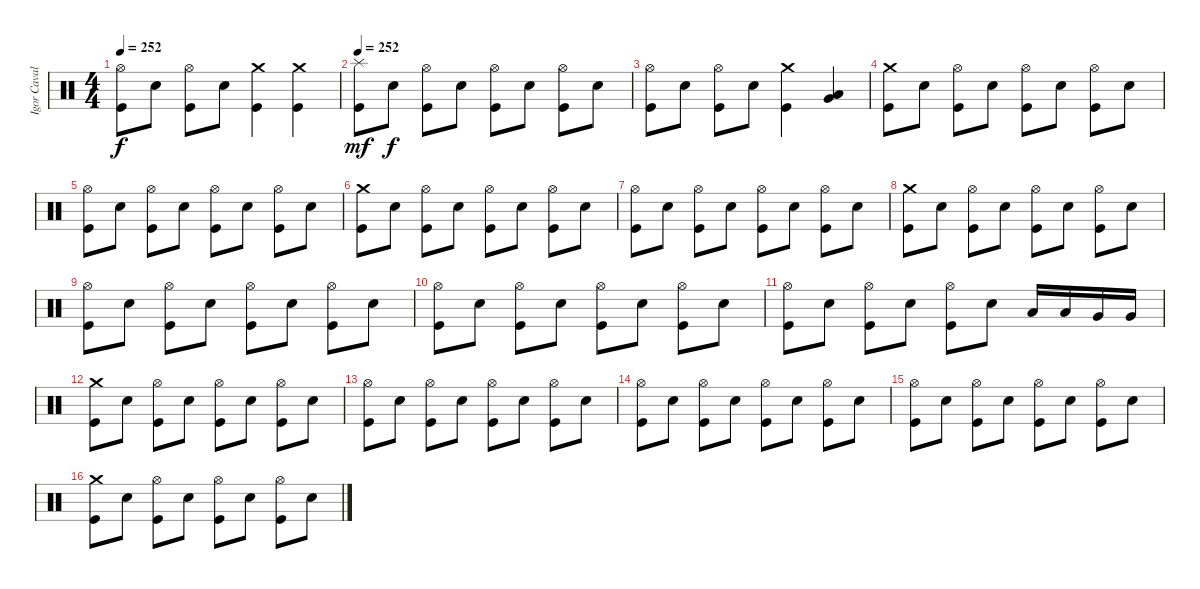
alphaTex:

\track ("Igor Cavalera" "Igor Caval") {instrument percussion}
\staff {score}
\articulation defaults
\ts (4 4)
\tempo 252
\clef neutral
\ks c
("Hi-Hat (open)" "Kick (hit)").8{dy f} "Electric Snare (hit)".8 ("Hi-Hat (open)" "Kick (hit)").8 "Electric Snare (hit)".8 ("Crash medium (hit)" "Kick (hit)").4 ("Crash medium (hit)" "Kick (hit)").4 |
\tempo 252
("Splash (hit)" "Kick (hit)").8{dy mf} "Electric Snare (hit)".8{dy f} ("Hi-Hat (open)" "Kick (hit)").8 "Electric Snare (hit)".8 ("Hi-Hat (open)" "Kick (hit)").8 "Electric Snare (hit)".8 ("Hi-Hat (open)" "Kick (hit)").8 "Electric Snare (hit)".8 |
("Hi-Hat (open)" "Kick (hit)").8 "Electric Snare (hit)".8 ("Hi-Hat (open)" "Kick (hit)").8 "Electric Snare (hit)".8 ("Crash medium (hit)" "Kick (hit)").4 ("Very Low Tom (hit)" "Low Floor Tom (hit)").4 |
("Crash medium (hit)" "Kick (hit)").8 "Electric Snare (hit)".8 ("Hi-Hat (open)" "Kick (hit)").8 "Electric Snare (hit)".8 ("Hi-Hat (open)" "Kick (hit)").8 "Electric Snare (hit)".8 ("Hi-Hat (open)" "Kick (hit)").8 "Electric Snare (hit)".8 |
("Hi-Hat (open)" "Kick (hit)").8 "Electric Snare (hit)".8 ("Hi-Hat (open)" "Kick (hit)").8 "Electric Snare (hit)".8 ("Hi-Hat (open)" "Kick (hit)").8 "Electric Snare (hit)".8 ("Hi-Hat (open)" "Kick (hit)").8 "Electric Snare (hit)".8 |
("Crash medium (hit)" "Kick (hit)").8 "Electric Snare (hit)".8 ("Hi-Hat (open)" "Kick (hit)").8 "Electric Snare (hit)".8 ("Hi-Hat (open)" "Kick (hit)").8 "Electric Snare (hit)".8 ("Hi-Hat (open)" "Kick (hit)").8 "Electric Snare (hit)".8 |
("Hi-Hat (open)" "Kick (hit)").8 "Electric Snare (hit)".8 ("Hi-Hat (open)" "Kick (hit)").8 "Electric Snare (hit)".8 ("Hi-Hat (open)" "Kick (hit)").8 "Electric Snare (hit)".8 ("Hi-Hat (open)" "Kick (hit)").8 "Electric Snare (hit)".8 |
("Crash medium (hit)" "Kick (hit)").8 "Electric Snare (hit)".8 ("Hi-Hat (open)" "Kick (hit)").8 "Electric Snare (hit)".8 ("Hi-Hat (open)" "Kick (hit)").8 "Electric Snare (hit)".8 ("Hi-Hat (open)" "Kick (hit)").8 "Electric Snare (hit)".8 |
("Hi-Hat (open)" "Kick (hit)").8 "Electric Snare (hit)".8 ("Hi-Hat (open)" "Kick (hit)").8 "Electric Snare (hit)".8 ("Hi-Hat (open)" "Kick (hit)").8 "Electric Snare (hit)".8 ("Hi-Hat (open)" "Kick (hit)").8 "Electric Snare (hit)".8 |
("Hi-Hat (open)" "Kick (hit)").8 "Electric Snare (hit)".8 ("Hi-Hat (open)" "Kick (hit)").8 "Electric Snare (hit)".8 ("Hi-Hat (open)" "Kick (hit)").8 "Electric Snare (hit)".8 ("Hi-Hat (open)" "Kick (hit)").8 "Electric Snare (hit)".8 |
("Hi-Hat (open)" "Kick (hit)").8 "Electric Snare (hit)".8 ("Hi-Hat (open)" "Kick (hit)").8 "Electric Snare (hit)".8 ("Hi-Hat (open)" "Kick (hit)").8 "Electric Snare (hit)".8 "Low Tom (hit)".16 "Low Tom (hit)".16 "Very Low Tom (hit)".16 "Very Low Tom (hit)".16 |
("Crash medium (hit)" "Kick (hit)").8 "Electric Snare (hit)".8 ("Hi-Hat (open)" "Kick (hit)").8 "Electric Snare (hit)".8 ("Hi-Hat (open)" "Kick (hit)").8 "Electric Snare (hit)".8 ("Hi-Hat (open)" "Kick (hit)").8 "Electric Snare (hit)".8 |
("Hi-Hat (open)" "Kick (hit)").8 "Electric Snare (hit)".8 ("Hi-Hat (open)" "Kick (hit)").8 "Electric Snare (hit)".8 ("Hi-Hat (open)" "Kick (hit)").8 "Electric Snare (hit)".8 ("Hi-Hat (open)" "Kick (hit)").8 "Electric Snare (hit)".8 |
("Hi-Hat (open)" "Kick (hit)").8 "Electric Snare (hit)".8 ("Hi-Hat (open)" "Kick (hit)").8 "Electric Snare (hit)".8 ("Hi-Hat (open)" "Kick (hit)").8 "Electric Snare (hit)".8 ("Hi-Hat (open)" "Kick (hit)").8 "Electric Snare (hit)".8 |
("Hi-Hat (open)" "Kick (hit)").8 "Electric Snare (hit)".8 ("Hi-Hat (open)" "Kick (hit)").8 "Electric Snare (hit)".8 ("Hi-Hat (open)" "Kick (hit)").8 "Electric Snare (hit)".8 ("Hi-Hat (open)" "Kick (hit)").8 "Electric Snare (hit)".8 |
("Crash medium (hit)" "Kick (hit)").8 "Electric Snare (hit)".8 ("Hi-Hat (open)" "Kick (hit)").8 "Electric Snare (hit)".8 ("Hi-Hat (open)" "Kick (hit)").8 "Electric Snare (hit)".8 ("Hi-Hat (open)" "Kick (hit)").8 "Electric Snare (hit)".8
